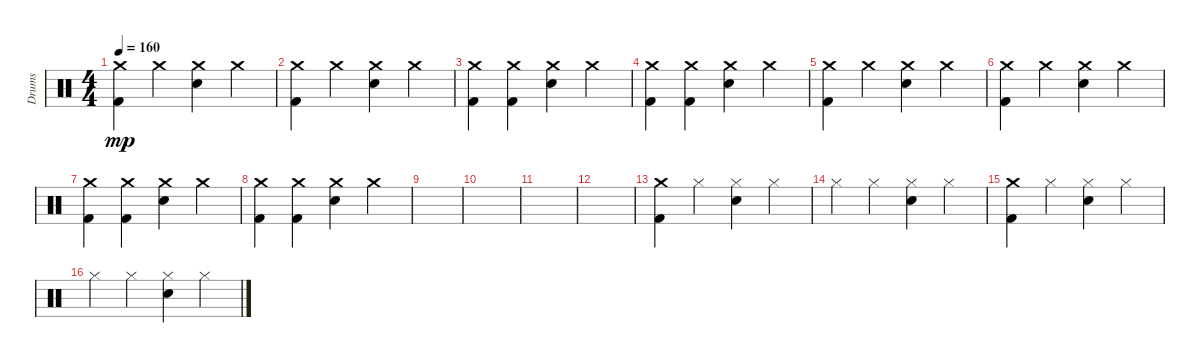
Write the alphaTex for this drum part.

\track ("Drums" "Drums") {instrument percussion}
\staff {score}
\articulation defaults
\ts (4 4)
\tempo 160
\clef neutral
\ks c
("Kick (hit) 2" "Crash medium (hit)").4{dy mp} "Crash medium (hit)".4 ("Snare (hit) 2" "Crash medium (hit)").4 "Crash medium (hit)".4 |
("Kick (hit) 2" "Crash medium (hit)").4 "Crash medium (hit)".4 ("Snare (hit) 2" "Crash medium (hit)").4 "Crash medium (hit)".4 |
("Kick (hit) 2" "Crash medium (hit)").4 ("Kick (hit) 2" "Crash medium (hit)").4 ("Snare (hit) 2" "Crash medium (hit)").4 "Crash medium (hit)".4 |
("Kick (hit) 2" "Crash medium (hit)").4 ("Kick (hit) 2" "Crash medium (hit)").4 ("Snare (hit) 2" "Crash medium (hit)").4 "Crash medium (hit)".4 |
("Kick (hit) 2" "Crash medium (hit)").4 "Crash medium (hit)".4 ("Snare (hit) 2" "Crash medium (hit)").4 "Crash medium (hit)".4 |
("Kick (hit) 2" "Crash medium (hit)").4 "Crash medium (hit)".4 ("Snare (hit) 2" "Crash medium (hit)").4 "Crash medium (hit)".4 |
("Kick (hit) 2" "Crash medium (hit)").4 ("Kick (hit) 2" "Crash medium (hit)").4 ("Snare (hit) 2" "Crash medium (hit)").4 "Crash medium (hit)".4 |
("Kick (hit) 2" "Crash medium (hit)").4 ("Kick (hit) 2" "Crash medium (hit)").4 ("Snare (hit) 2" "Crash medium (hit)").4 "Crash medium (hit)".4 |
|
|
|
|
("Kick (hit) 2" "Crash medium (hit)").4 "Hi-Hat (closed)".4 ("Snare (hit) 2" "Hi-Hat (closed)").4 "Hi-Hat (closed)".4 |
"Hi-Hat (closed)".4 "Hi-Hat (closed)".4 ("Snare (hit) 2" "Hi-Hat (closed)").4 "Hi-Hat (closed)".4 |
("Kick (hit) 2" "Crash medium (hit)").4 "Hi-Hat (closed)".4 ("Snare (hit) 2" "Hi-Hat (closed)").4 "Hi-Hat (closed)".4 |
"Hi-Hat (closed)".4 "Hi-Hat (closed)".4 ("Snare (hit) 2" "Hi-Hat (closed)").4 "Hi-Hat (closed)".4
